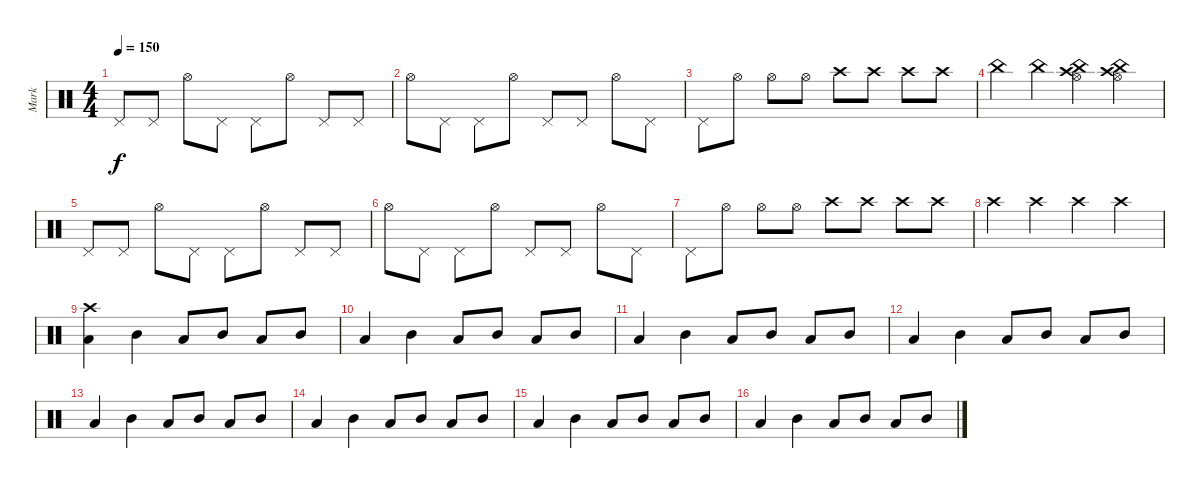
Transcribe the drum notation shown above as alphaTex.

\track ("Mark" "Mark") {instrument percussion}
\staff {score}
\articulation defaults
\ts (4 4)
\tempo 150
\clef neutral
\ks c "Pedal Hi-Hat (hit)".8{dy f} "Pedal Hi-Hat (hit)".8 "Hi-Hat (open)".8 "Pedal Hi-Hat (hit)".8 "Pedal Hi-Hat (hit)".8 "Hi-Hat (open)".8 "Pedal Hi-Hat (hit)".8 "Pedal Hi-Hat (hit)".8
|
"Hi-Hat (open)".8 "Pedal Hi-Hat (hit)".8 "Pedal Hi-Hat (hit)".8 "Hi-Hat (open)".8 "Pedal Hi-Hat (hit)".8 "Pedal Hi-Hat (hit)".8 "Hi-Hat (open)".8 "Pedal Hi-Hat (hit)".8 |
"Pedal Hi-Hat (hit)".8 "Hi-Hat (open)".8 "Hi-Hat (open)".8 "Hi-Hat (open)".8 "Crash high (hit)".8 "Crash high (hit)".8 "Crash high (hit)".8 "Crash high (hit)".8 |
"China (hit)".4 "China (hit)".4 ("Hi-Hat (open)" "Crash high (hit)" "China (hit)").4 ("Hi-Hat (open)" "Crash high (hit)" "China (hit)").4 |
"Pedal Hi-Hat (hit)".8 "Pedal Hi-Hat (hit)".8 "Hi-Hat (open)".8 "Pedal Hi-Hat (hit)".8 "Pedal Hi-Hat (hit)".8 "Hi-Hat (open)".8 "Pedal Hi-Hat (hit)".8 "Pedal Hi-Hat (hit)".8 |
"Hi-Hat (open)".8 "Pedal Hi-Hat (hit)".8 "Pedal Hi-Hat (hit)".8 "Hi-Hat (open)".8 "Pedal Hi-Hat (hit)".8 "Pedal Hi-Hat (hit)".8 "Hi-Hat (open)".8 "Pedal Hi-Hat (hit)".8 |
"Pedal Hi-Hat (hit)".8 "Hi-Hat (open)".8 "Hi-Hat (open)".8 "Hi-Hat (open)".8 "Crash high (hit)".8 "Crash high (hit)".8 "Crash high (hit)".8 "Crash high (hit)".8 |
"Crash high (hit)".4 "Crash high (hit)".4 "Crash high (hit)".4 "Crash high (hit)".4 |
("Low Tom (hit)" "Crash high (hit)").4 "Mid Tom (hit)".4 "Low Tom (hit)".8 "Mid Tom (hit)".8 "Low Tom (hit)".8 "Mid Tom (hit)".8 |
"Low Tom (hit)".4 "Mid Tom (hit)".4 "Low Tom (hit)".8 "Mid Tom (hit)".8 "Low Tom (hit)".8 "Mid Tom (hit)".8 |
"Low Tom (hit)".4 "Mid Tom (hit)".4 "Low Tom (hit)".8 "Mid Tom (hit)".8 "Low Tom (hit)".8 "Mid Tom (hit)".8 |
"Low Tom (hit)".4 "Mid Tom (hit)".4 "Low Tom (hit)".8 "Mid Tom (hit)".8 "Low Tom (hit)".8 "Mid Tom (hit)".8 |
"Low Tom (hit)".4 "Mid Tom (hit)".4 "Low Tom (hit)".8 "Mid Tom (hit)".8 "Low Tom (hit)".8 "Mid Tom (hit)".8 |
"Low Tom (hit)".4 "Mid Tom (hit)".4 "Low Tom (hit)".8 "Mid Tom (hit)".8 "Low Tom (hit)".8 "Mid Tom (hit)".8 |
"Low Tom (hit)".4 "Mid Tom (hit)".4 "Low Tom (hit)".8 "Mid Tom (hit)".8 "Low Tom (hit)".8 "Mid Tom (hit)".8 |
"Low Tom (hit)".4 "Mid Tom (hit)".4 "Low Tom (hit)".8 "Mid Tom (hit)".8 "Low Tom (hit)".8 "Mid Tom (hit)".8
